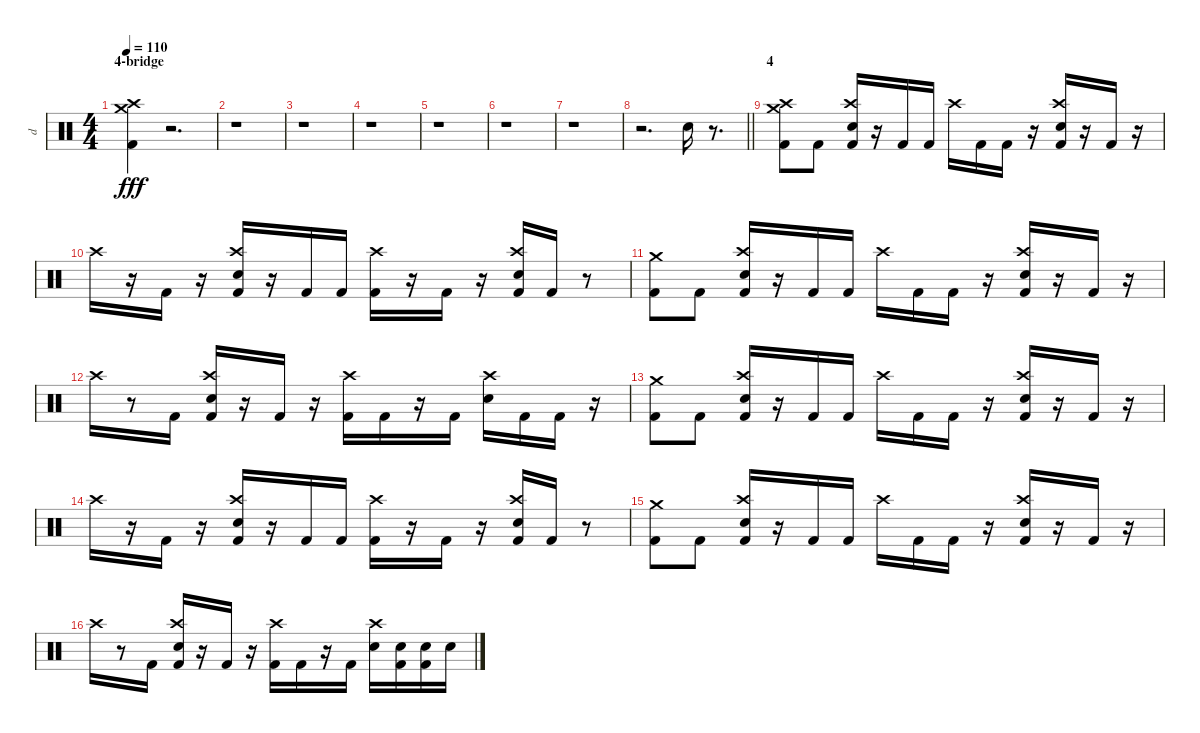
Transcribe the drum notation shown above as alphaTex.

\track ("d" "d") {instrument percussion}
\staff {score}
\articulation defaults
\ts (4 4)
\section ("" "4-bridge")
\tempo 110
\clef neutral
\ks c
("Kick (hit) 2" "Crash high (hit)" "Crash medium (hit)").4{dy fff} r.2{d} |
r.1 |
r.1 |
r.1 |
r.1 |
r.1 |
r.1 |
\barLineRight lightlight
r.2{d} "Electric Snare (hit)".16 r.8{d} |
\section ("" "4")
("Crash medium (hit)" "Kick (hit) 2" "Crash high (hit)").8 "Kick (hit) 2".8 ("Electric Snare (hit)" "Kick (hit) 2" "Crash high (hit)").16 r.16 "Kick (hit) 2".16 "Kick (hit) 2".16 "Crash high (hit)".16 "Kick (hit) 2".16 "Kick (hit) 2".16 r.16 ("Crash high (hit)" "Kick (hit) 2" "Electric Snare (hit)").16 r.16 "Kick (hit) 2".16 r.16 |
"Crash high (hit)".16 r.16 "Kick (hit) 2".16 r.16 ("Crash high (hit)" "Kick (hit) 2" "Electric Snare (hit)").16 r.16 "Kick (hit) 2".16 "Kick (hit) 2".16 ("Kick (hit) 2" "Crash high (hit)").16 r.16 "Kick (hit) 2".16 r.16 ("Kick (hit) 2" "Electric Snare (hit)" "Crash high (hit)").16 "Kick (hit) 2".16 r.8 |
("Kick (hit) 2" "Crash medium (hit)").8 "Kick (hit) 2".8 ("Crash high (hit)" "Kick (hit) 2" "Electric Snare (hit)").16 r.16 "Kick (hit) 2".16 "Kick (hit) 2".16 "Crash high (hit)".16 "Kick (hit) 2".16 "Kick (hit) 2".16 r.16 ("Kick (hit) 2" "Crash high (hit)" "Electric Snare (hit)").16 r.16 "Kick (hit) 2".16 r.16 |
"Crash high (hit)".16 r.8 "Kick (hit) 2".16 ("Electric Snare (hit)" "Kick (hit) 2" "Crash high (hit)").16 r.16 "Kick (hit) 2".16 r.16 ("Kick (hit) 2" "Crash high (hit)").16 "Kick (hit) 2".16 r.16 "Kick (hit) 2".16 ("Electric Snare (hit)" "Crash high (hit)").16 "Kick (hit) 2".16 "Kick (hit) 2".16 r.16 |
("Crash medium (hit)" "Kick (hit) 2").8 "Kick (hit) 2".8 ("Electric Snare (hit)" "Kick (hit) 2" "Crash high (hit)").16 r.16 "Kick (hit) 2".16 "Kick (hit) 2".16 "Crash high (hit)".16 "Kick (hit) 2".16 "Kick (hit) 2".16 r.16 ("Crash high (hit)" "Kick (hit) 2" "Electric Snare (hit)").16 r.16 "Kick (hit) 2".16 r.16 |
"Crash high (hit)".16 r.16 "Kick (hit) 2".16 r.16 ("Crash high (hit)" "Kick (hit) 2" "Electric Snare (hit)").16 r.16 "Kick (hit) 2".16 "Kick (hit) 2".16 ("Kick (hit) 2" "Crash high (hit)").16 r.16 "Kick (hit) 2".16 r.16 ("Kick (hit) 2" "Electric Snare (hit)" "Crash high (hit)").16 "Kick (hit) 2".16 r.8 |
("Kick (hit) 2" "Crash medium (hit)").8 "Kick (hit) 2".8 ("Crash high (hit)" "Kick (hit) 2" "Electric Snare (hit)").16 r.16 "Kick (hit) 2".16 "Kick (hit) 2".16 "Crash high (hit)".16 "Kick (hit) 2".16 "Kick (hit) 2".16 r.16 ("Electric Snare (hit)" "Kick (hit) 2" "Crash high (hit)").16 r.16 "Kick (hit) 2".16 r.16 |
"Crash high (hit)".16 r.8 "Kick (hit) 2".16 ("Electric Snare (hit)" "Kick (hit) 2" "Crash high (hit)").16 r.16 "Kick (hit) 2".16 r.16 ("Kick (hit) 2" "Crash high (hit)").16 "Kick (hit) 2".16 r.16 "Kick (hit) 2".16 ("Electric Snare (hit)" "Crash high (hit)").16 ("Kick (hit) 2" "Electric Snare (hit)").16 ("Electric Snare (hit)" "Kick (hit) 2").16 "Electric Snare (hit)".16
